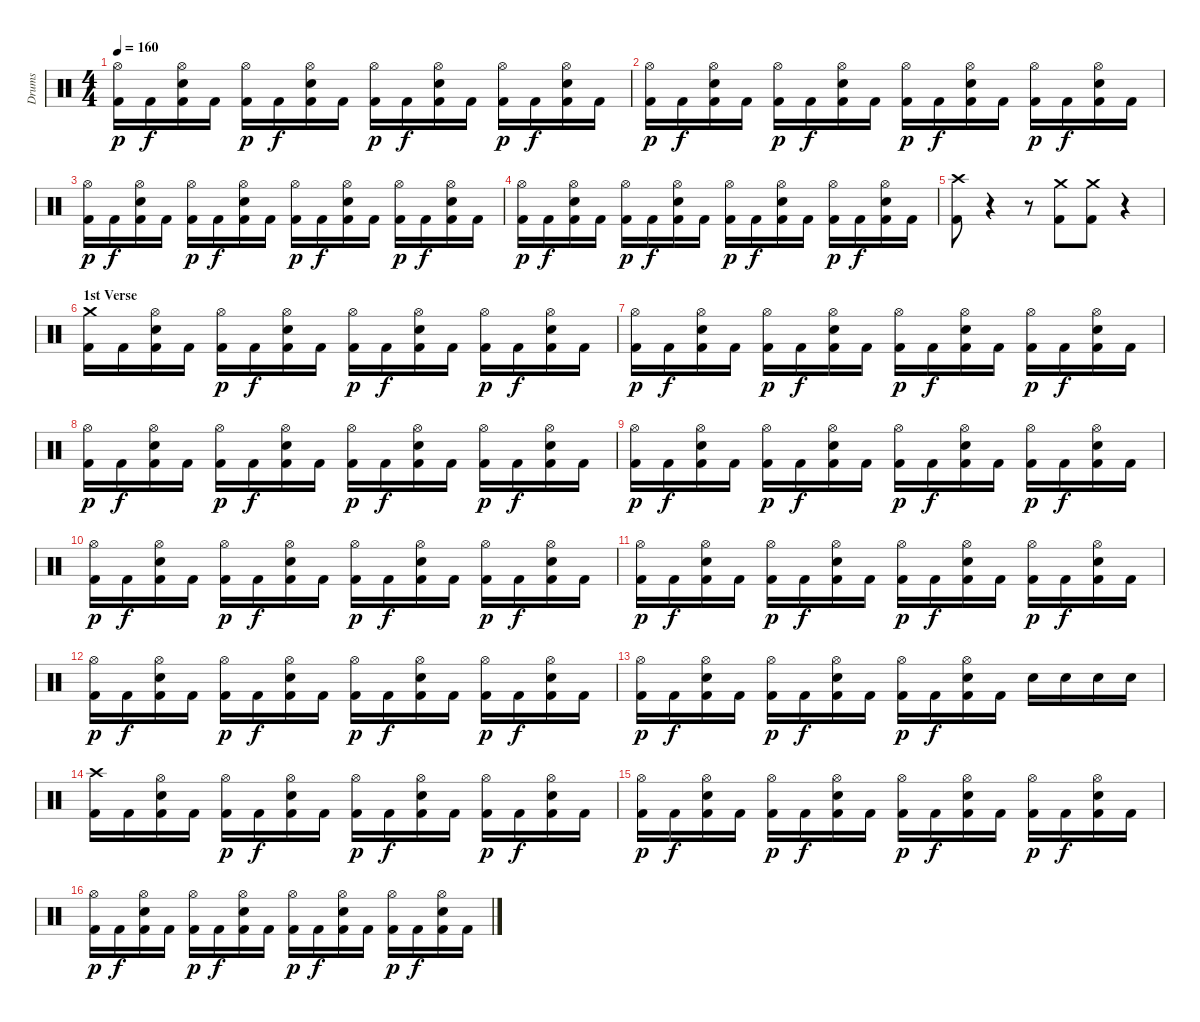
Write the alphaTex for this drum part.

\track ("Drums" "Drums") {instrument percussion}
\staff {score}
\articulation defaults
\ts (4 4)
\tempo 160
\clef neutral
\ks c
("Hi-Hat (open)" "Kick (hit) 2").16{dy p} "Kick (hit) 2".16{dy f} ("Hi-Hat (open)" "Electric Snare (hit)" "Kick (hit) 2").16 "Kick (hit) 2".16 ("Hi-Hat (open)" "Kick (hit) 2").16{dy p} "Kick (hit) 2".16{dy f} ("Hi-Hat (open)" "Electric Snare (hit)" "Kick (hit) 2").16 "Kick (hit) 2".16 ("Hi-Hat (open)" "Kick (hit) 2").16{dy p} "Kick (hit) 2".16{dy f} ("Hi-Hat (open)" "Electric Snare (hit)" "Kick (hit) 2").16 "Kick (hit) 2".16 ("Hi-Hat (open)" "Kick (hit) 2").16{dy p} "Kick (hit) 2".16{dy f} ("Hi-Hat (open)" "Electric Snare (hit)" "Kick (hit) 2").16 "Kick (hit) 2".16 |
("Hi-Hat (open)" "Kick (hit) 2").16{dy p} "Kick (hit) 2".16{dy f} ("Hi-Hat (open)" "Electric Snare (hit)" "Kick (hit) 2").16 "Kick (hit) 2".16 ("Hi-Hat (open)" "Kick (hit) 2").16{dy p} "Kick (hit) 2".16{dy f} ("Hi-Hat (open)" "Electric Snare (hit)" "Kick (hit) 2").16 "Kick (hit) 2".16 ("Hi-Hat (open)" "Kick (hit) 2").16{dy p} "Kick (hit) 2".16{dy f} ("Hi-Hat (open)" "Electric Snare (hit)" "Kick (hit) 2").16 "Kick (hit) 2".16 ("Hi-Hat (open)" "Kick (hit) 2").16{dy p} "Kick (hit) 2".16{dy f} ("Hi-Hat (open)" "Electric Snare (hit)" "Kick (hit) 2").16 "Kick (hit) 2".16 |
("Hi-Hat (open)" "Kick (hit) 2").16{dy p} "Kick (hit) 2".16{dy f} ("Hi-Hat (open)" "Electric Snare (hit)" "Kick (hit) 2").16 "Kick (hit) 2".16 ("Hi-Hat (open)" "Kick (hit) 2").16{dy p} "Kick (hit) 2".16{dy f} ("Hi-Hat (open)" "Electric Snare (hit)" "Kick (hit) 2").16 "Kick (hit) 2".16 ("Hi-Hat (open)" "Kick (hit) 2").16{dy p} "Kick (hit) 2".16{dy f} ("Hi-Hat (open)" "Electric Snare (hit)" "Kick (hit) 2").16 "Kick (hit) 2".16 ("Hi-Hat (open)" "Kick (hit) 2").16{dy p} "Kick (hit) 2".16{dy f} ("Hi-Hat (open)" "Electric Snare (hit)" "Kick (hit) 2").16 "Kick (hit) 2".16 |
("Hi-Hat (open)" "Kick (hit) 2").16{dy p} "Kick (hit) 2".16{dy f} ("Hi-Hat (open)" "Electric Snare (hit)" "Kick (hit) 2").16 "Kick (hit) 2".16 ("Hi-Hat (open)" "Kick (hit) 2").16{dy p} "Kick (hit) 2".16{dy f} ("Hi-Hat (open)" "Electric Snare (hit)" "Kick (hit) 2").16 "Kick (hit) 2".16 ("Hi-Hat (open)" "Kick (hit) 2").16{dy p} "Kick (hit) 2".16{dy f} ("Hi-Hat (open)" "Electric Snare (hit)" "Kick (hit) 2").16 "Kick (hit) 2".16 ("Hi-Hat (open)" "Kick (hit) 2").16{dy p} "Kick (hit) 2".16{dy f} ("Hi-Hat (open)" "Electric Snare (hit)" "Kick (hit) 2").16 "Kick (hit) 2".16 |
("Crash high (hit)" "Kick (hit) 2").8 r.4 r.8 ("Crash medium (hit)" "Kick (hit) 2").8 ("Crash medium (hit)" "Kick (hit) 2").8 r.4 |
\section ("" "1st Verse")
("Crash medium (hit)" "Kick (hit) 2").16 "Kick (hit) 2".16 ("Hi-Hat (open)" "Electric Snare (hit)" "Kick (hit) 2").16 "Kick (hit) 2".16 ("Hi-Hat (open)" "Kick (hit) 2").16{dy p} "Kick (hit) 2".16{dy f} ("Hi-Hat (open)" "Electric Snare (hit)" "Kick (hit) 2").16 "Kick (hit) 2".16 ("Hi-Hat (open)" "Kick (hit) 2").16{dy p} "Kick (hit) 2".16{dy f} ("Hi-Hat (open)" "Electric Snare (hit)" "Kick (hit) 2").16 "Kick (hit) 2".16 ("Hi-Hat (open)" "Kick (hit) 2").16{dy p} "Kick (hit) 2".16{dy f} ("Hi-Hat (open)" "Electric Snare (hit)" "Kick (hit) 2").16 "Kick (hit) 2".16 |
("Hi-Hat (open)" "Kick (hit) 2").16{dy p} "Kick (hit) 2".16{dy f} ("Hi-Hat (open)" "Electric Snare (hit)" "Kick (hit) 2").16 "Kick (hit) 2".16 ("Hi-Hat (open)" "Kick (hit) 2").16{dy p} "Kick (hit) 2".16{dy f} ("Hi-Hat (open)" "Electric Snare (hit)" "Kick (hit) 2").16 "Kick (hit) 2".16 ("Hi-Hat (open)" "Kick (hit) 2").16{dy p} "Kick (hit) 2".16{dy f} ("Hi-Hat (open)" "Electric Snare (hit)" "Kick (hit) 2").16 "Kick (hit) 2".16 ("Hi-Hat (open)" "Kick (hit) 2").16{dy p} "Kick (hit) 2".16{dy f} ("Hi-Hat (open)" "Electric Snare (hit)" "Kick (hit) 2").16 "Kick (hit) 2".16 |
("Hi-Hat (open)" "Kick (hit) 2").16{dy p} "Kick (hit) 2".16{dy f} ("Hi-Hat (open)" "Electric Snare (hit)" "Kick (hit) 2").16 "Kick (hit) 2".16 ("Hi-Hat (open)" "Kick (hit) 2").16{dy p} "Kick (hit) 2".16{dy f} ("Hi-Hat (open)" "Electric Snare (hit)" "Kick (hit) 2").16 "Kick (hit) 2".16 ("Hi-Hat (open)" "Kick (hit) 2").16{dy p} "Kick (hit) 2".16{dy f} ("Hi-Hat (open)" "Electric Snare (hit)" "Kick (hit) 2").16 "Kick (hit) 2".16 ("Hi-Hat (open)" "Kick (hit) 2").16{dy p} "Kick (hit) 2".16{dy f} ("Hi-Hat (open)" "Electric Snare (hit)" "Kick (hit) 2").16 "Kick (hit) 2".16 |
("Hi-Hat (open)" "Kick (hit) 2").16{dy p} "Kick (hit) 2".16{dy f} ("Hi-Hat (open)" "Electric Snare (hit)" "Kick (hit) 2").16 "Kick (hit) 2".16 ("Hi-Hat (open)" "Kick (hit) 2").16{dy p} "Kick (hit) 2".16{dy f} ("Hi-Hat (open)" "Electric Snare (hit)" "Kick (hit) 2").16 "Kick (hit) 2".16 ("Hi-Hat (open)" "Kick (hit) 2").16{dy p} "Kick (hit) 2".16{dy f} ("Hi-Hat (open)" "Electric Snare (hit)" "Kick (hit) 2").16 "Kick (hit) 2".16 ("Hi-Hat (open)" "Kick (hit) 2").16{dy p} "Kick (hit) 2".16{dy f} ("Hi-Hat (open)" "Electric Snare (hit)" "Kick (hit) 2").16 "Kick (hit) 2".16 |
("Hi-Hat (open)" "Kick (hit) 2").16{dy p} "Kick (hit) 2".16{dy f} ("Hi-Hat (open)" "Electric Snare (hit)" "Kick (hit) 2").16 "Kick (hit) 2".16 ("Hi-Hat (open)" "Kick (hit) 2").16{dy p} "Kick (hit) 2".16{dy f} ("Hi-Hat (open)" "Electric Snare (hit)" "Kick (hit) 2").16 "Kick (hit) 2".16 ("Hi-Hat (open)" "Kick (hit) 2").16{dy p} "Kick (hit) 2".16{dy f} ("Hi-Hat (open)" "Electric Snare (hit)" "Kick (hit) 2").16 "Kick (hit) 2".16 ("Hi-Hat (open)" "Kick (hit) 2").16{dy p} "Kick (hit) 2".16{dy f} ("Hi-Hat (open)" "Electric Snare (hit)" "Kick (hit) 2").16 "Kick (hit) 2".16 |
("Hi-Hat (open)" "Kick (hit) 2").16{dy p} "Kick (hit) 2".16{dy f} ("Hi-Hat (open)" "Electric Snare (hit)" "Kick (hit) 2").16 "Kick (hit) 2".16 ("Hi-Hat (open)" "Kick (hit) 2").16{dy p} "Kick (hit) 2".16{dy f} ("Hi-Hat (open)" "Electric Snare (hit)" "Kick (hit) 2").16 "Kick (hit) 2".16 ("Hi-Hat (open)" "Kick (hit) 2").16{dy p} "Kick (hit) 2".16{dy f} ("Hi-Hat (open)" "Electric Snare (hit)" "Kick (hit) 2").16 "Kick (hit) 2".16 ("Hi-Hat (open)" "Kick (hit) 2").16{dy p} "Kick (hit) 2".16{dy f} ("Hi-Hat (open)" "Electric Snare (hit)" "Kick (hit) 2").16 "Kick (hit) 2".16 |
("Hi-Hat (open)" "Kick (hit) 2").16{dy p} "Kick (hit) 2".16{dy f} ("Hi-Hat (open)" "Electric Snare (hit)" "Kick (hit) 2").16 "Kick (hit) 2".16 ("Hi-Hat (open)" "Kick (hit) 2").16{dy p} "Kick (hit) 2".16{dy f} ("Hi-Hat (open)" "Electric Snare (hit)" "Kick (hit) 2").16 "Kick (hit) 2".16 ("Hi-Hat (open)" "Kick (hit) 2").16{dy p} "Kick (hit) 2".16{dy f} ("Hi-Hat (open)" "Electric Snare (hit)" "Kick (hit) 2").16 "Kick (hit) 2".16 ("Hi-Hat (open)" "Kick (hit) 2").16{dy p} "Kick (hit) 2".16{dy f} ("Hi-Hat (open)" "Electric Snare (hit)" "Kick (hit) 2").16 "Kick (hit) 2".16 |
("Hi-Hat (open)" "Kick (hit) 2").16{dy p} "Kick (hit) 2".16{dy f} ("Hi-Hat (open)" "Electric Snare (hit)" "Kick (hit) 2").16 "Kick (hit) 2".16 ("Hi-Hat (open)" "Kick (hit) 2").16{dy p} "Kick (hit) 2".16{dy f} ("Hi-Hat (open)" "Electric Snare (hit)" "Kick (hit) 2").16 "Kick (hit) 2".16 ("Hi-Hat (open)" "Kick (hit) 2").16{dy p} "Kick (hit) 2".16{dy f} ("Hi-Hat (open)" "Electric Snare (hit)" "Kick (hit) 2").16 "Kick (hit) 2".16 "Electric Snare (hit)".16 "Electric Snare (hit)".16 "Electric Snare (hit)".16 "Electric Snare (hit)".16 |
("Crash high (hit)" "Kick (hit) 2").16 "Kick (hit) 2".16 ("Hi-Hat (open)" "Electric Snare (hit)" "Kick (hit) 2").16 "Kick (hit) 2".16 ("Hi-Hat (open)" "Kick (hit) 2").16{dy p} "Kick (hit) 2".16{dy f} ("Hi-Hat (open)" "Electric Snare (hit)" "Kick (hit) 2").16 "Kick (hit) 2".16 ("Hi-Hat (open)" "Kick (hit) 2").16{dy p} "Kick (hit) 2".16{dy f} ("Hi-Hat (open)" "Electric Snare (hit)" "Kick (hit) 2").16 "Kick (hit) 2".16 ("Hi-Hat (open)" "Kick (hit) 2").16{dy p} "Kick (hit) 2".16{dy f} ("Hi-Hat (open)" "Electric Snare (hit)" "Kick (hit) 2").16 "Kick (hit) 2".16 |
("Hi-Hat (open)" "Kick (hit) 2").16{dy p} "Kick (hit) 2".16{dy f} ("Hi-Hat (open)" "Electric Snare (hit)" "Kick (hit) 2").16 "Kick (hit) 2".16 ("Hi-Hat (open)" "Kick (hit) 2").16{dy p} "Kick (hit) 2".16{dy f} ("Hi-Hat (open)" "Electric Snare (hit)" "Kick (hit) 2").16 "Kick (hit) 2".16 ("Hi-Hat (open)" "Kick (hit) 2").16{dy p} "Kick (hit) 2".16{dy f} ("Hi-Hat (open)" "Electric Snare (hit)" "Kick (hit) 2").16 "Kick (hit) 2".16 ("Hi-Hat (open)" "Kick (hit) 2").16{dy p} "Kick (hit) 2".16{dy f} ("Hi-Hat (open)" "Electric Snare (hit)" "Kick (hit) 2").16 "Kick (hit) 2".16 |
("Hi-Hat (open)" "Kick (hit) 2").16{dy p} "Kick (hit) 2".16{dy f} ("Hi-Hat (open)" "Electric Snare (hit)" "Kick (hit) 2").16 "Kick (hit) 2".16 ("Hi-Hat (open)" "Kick (hit) 2").16{dy p} "Kick (hit) 2".16{dy f} ("Hi-Hat (open)" "Electric Snare (hit)" "Kick (hit) 2").16 "Kick (hit) 2".16 ("Hi-Hat (open)" "Kick (hit) 2").16{dy p} "Kick (hit) 2".16{dy f} ("Hi-Hat (open)" "Electric Snare (hit)" "Kick (hit) 2").16 "Kick (hit) 2".16 ("Hi-Hat (open)" "Kick (hit) 2").16{dy p} "Kick (hit) 2".16{dy f} ("Hi-Hat (open)" "Electric Snare (hit)" "Kick (hit) 2").16 "Kick (hit) 2".16
